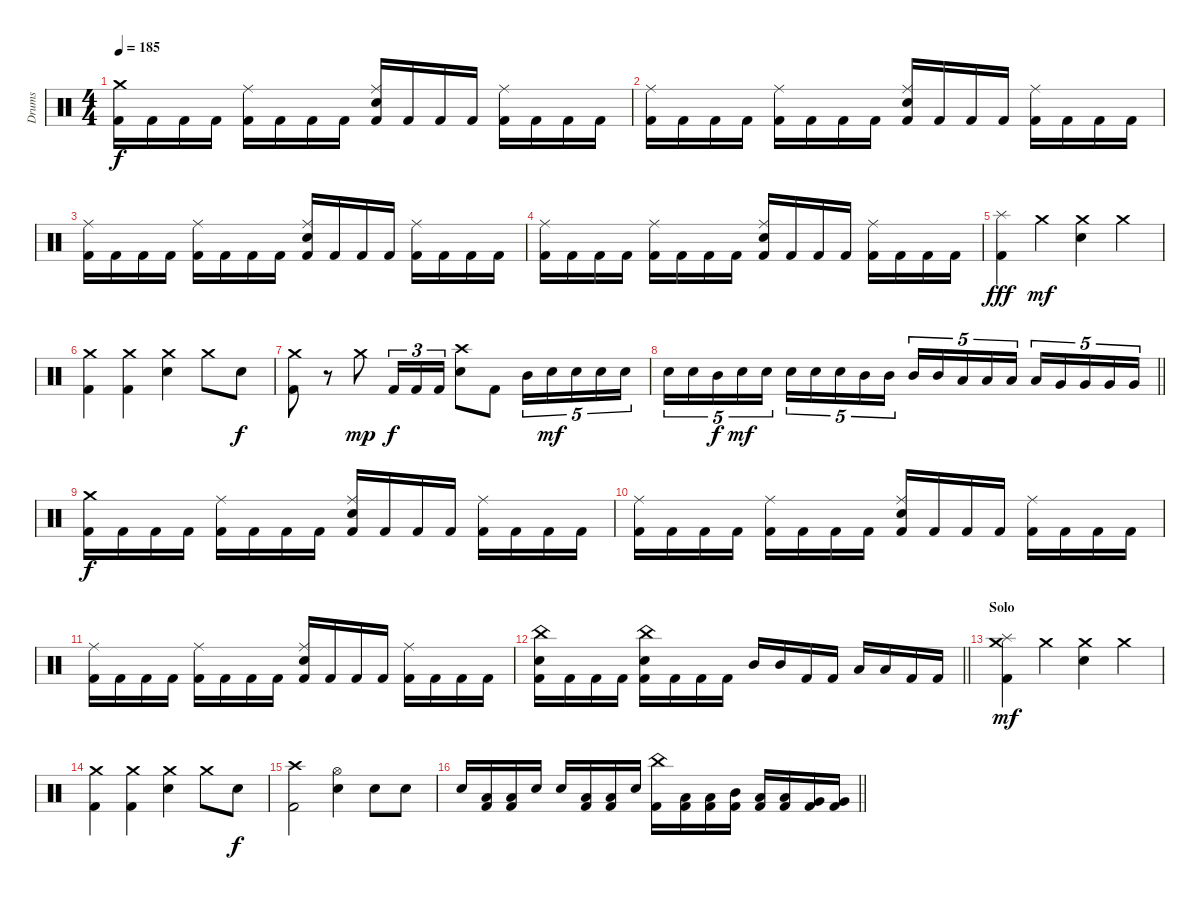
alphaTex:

\track ("Drums" "Drums") {instrument percussion}
\staff {score}
\articulation defaults
\ts (4 4)
\tempo 185
\clef neutral
\ks c
("Crash medium (hit)" "Kick (hit) 2").16{dy f} "Kick (hit) 2".16 "Kick (hit) 2".16 "Kick (hit) 2".16 ("Ride (middle)" "Kick (hit) 2").16 "Kick (hit) 2".16 "Kick (hit) 2".16 "Kick (hit) 2".16 ("Ride (middle)" "Electric Snare (hit)" "Kick (hit) 2").16 "Kick (hit) 2".16 "Kick (hit) 2".16 "Kick (hit) 2".16 ("Ride (middle)" "Kick (hit) 2").16 "Kick (hit) 2".16 "Kick (hit) 2".16 "Kick (hit) 2".16 |
("Ride (middle)" "Kick (hit) 2").16 "Kick (hit) 2".16 "Kick (hit) 2".16 "Kick (hit) 2".16 ("Ride (middle)" "Kick (hit) 2").16 "Kick (hit) 2".16 "Kick (hit) 2".16 "Kick (hit) 2".16 ("Ride (middle)" "Electric Snare (hit)" "Kick (hit) 2").16 "Kick (hit) 2".16 "Kick (hit) 2".16 "Kick (hit) 2".16 ("Ride (middle)" "Kick (hit) 2").16 "Kick (hit) 2".16 "Kick (hit) 2".16 "Kick (hit) 2".16 |
("Ride (middle)" "Kick (hit) 2").16 "Kick (hit) 2".16 "Kick (hit) 2".16 "Kick (hit) 2".16 ("Ride (middle)" "Kick (hit) 2").16 "Kick (hit) 2".16 "Kick (hit) 2".16 "Kick (hit) 2".16 ("Ride (middle)" "Electric Snare (hit)" "Kick (hit) 2").16 "Kick (hit) 2".16 "Kick (hit) 2".16 "Kick (hit) 2".16 ("Ride (middle)" "Kick (hit) 2").16 "Kick (hit) 2".16 "Kick (hit) 2".16 "Kick (hit) 2".16 |
("Ride (middle)" "Kick (hit) 2").16 "Kick (hit) 2".16 "Kick (hit) 2".16 "Kick (hit) 2".16 ("Ride (middle)" "Kick (hit) 2").16 "Kick (hit) 2".16 "Kick (hit) 2".16 "Kick (hit) 2".16 ("Ride (middle)" "Electric Snare (hit)" "Kick (hit) 2").16 "Kick (hit) 2".16 "Kick (hit) 2".16 "Kick (hit) 2".16 ("Ride (middle)" "Kick (hit) 2").16 "Kick (hit) 2".16 "Kick (hit) 2".16 "Kick (hit) 2".16 |
("Splash (hit)" "Kick (hit) 2").4{dy fff} "Crash medium (hit)".4{dy mf} ("Crash medium (hit)" "Electric Snare (hit)").4 "Crash medium (hit)".4 |
("Crash medium (hit)" "Kick (hit) 2").4 ("Crash medium (hit)" "Kick (hit) 2").4 ("Crash medium (hit)" "Electric Snare (hit)").4 "Crash medium (hit)".8 "Electric Snare (hit)".8{dy f} |
("Crash medium (hit)" "Kick (hit) 2").8 r.8 "Crash medium (hit)".8{dy mp} "Kick (hit) 2".16{tu (3 2) dy f} "Kick (hit) 2".16{tu (3 2)} "Kick (hit) 2".16{tu (3 2)} ("Crash high (hit)" "Electric Snare (hit)").8 "Kick (hit) 2".8 "Mid Tom (hit)".16{tu (5 4)} "Electric Snare (hit)".16{tu (5 4) dy mf} "Electric Snare (hit)".16{tu (5 4)} "Electric Snare (hit)".16{tu (5 4)} "Electric Snare (hit)".16{tu (5 4)} |
\barLineRight lightlight "Electric Snare (hit)".16{tu (5 4)} "Electric Snare (hit)".16{tu (5 4)} "Mid Tom (hit)".16{tu (5 4) dy f} "Electric Snare (hit)".16{tu (5 4) dy mf} "Electric Snare (hit)".16{tu (5 4)} "Electric Snare (hit)".16{tu (5 4)} "Electric Snare (hit)".16{tu (5 4)} "Electric Snare (hit)".16{tu (5 4)} "Mid Tom (hit)".16{tu (5 4)} "Mid Tom (hit)".16{tu (5 4)} "Mid Tom (hit)".16{tu (5 4)} "Mid Tom (hit)".16{tu (5 4)} "Low Tom (hit)".16{tu (5 4)} "Low Tom (hit)".16{tu (5 4)} "Low Tom (hit)".16{tu (5 4)} "Low Tom (hit)".16{tu (5 4)} "Very Low Tom (hit)".16{tu (5 4)} "Very Low Tom (hit)".16{tu (5 4)} "Very Low Tom (hit)".16{tu (5 4)} "Very Low Tom (hit)".16{tu (5 4)}
|
("Crash medium (hit)" "Kick (hit) 2").16{dy f} "Kick (hit) 2".16 "Kick (hit) 2".16 "Kick (hit) 2".16 ("Ride (middle)" "Kick (hit) 2").16 "Kick (hit) 2".16 "Kick (hit) 2".16 "Kick (hit) 2".16 ("Ride (middle)" "Electric Snare (hit)" "Kick (hit) 2").16 "Kick (hit) 2".16 "Kick (hit) 2".16 "Kick (hit) 2".16 ("Ride (middle)" "Kick (hit) 2").16 "Kick (hit) 2".16 "Kick (hit) 2".16 "Kick (hit) 2".16 |
("Ride (middle)" "Kick (hit) 2").16 "Kick (hit) 2".16 "Kick (hit) 2".16 "Kick (hit) 2".16 ("Ride (middle)" "Kick (hit) 2").16 "Kick (hit) 2".16 "Kick (hit) 2".16 "Kick (hit) 2".16 ("Ride (middle)" "Electric Snare (hit)" "Kick (hit) 2").16 "Kick (hit) 2".16 "Kick (hit) 2".16 "Kick (hit) 2".16 ("Ride (middle)" "Kick (hit) 2").16 "Kick (hit) 2".16 "Kick (hit) 2".16 "Kick (hit) 2".16 |
("Ride (middle)" "Kick (hit) 2").16 "Kick (hit) 2".16 "Kick (hit) 2".16 "Kick (hit) 2".16 ("Ride (middle)" "Kick (hit) 2").16 "Kick (hit) 2".16 "Kick (hit) 2".16 "Kick (hit) 2".16 ("Ride (middle)" "Electric Snare (hit)" "Kick (hit) 2").16 "Kick (hit) 2".16 "Kick (hit) 2".16 "Kick (hit) 2".16 ("Ride (middle)" "Kick (hit) 2").16 "Kick (hit) 2".16 "Kick (hit) 2".16 "Kick (hit) 2".16 |
\barLineRight lightlight
("China (hit)" "Electric Snare (hit)" "Kick (hit) 2").16 "Kick (hit) 2".16 "Kick (hit) 2".16 "Kick (hit) 2".16 ("China (hit)" "Electric Snare (hit)" "Kick (hit) 2").16 "Kick (hit) 2".16 "Kick (hit) 2".16 "Kick (hit) 2".16 "Mid Tom (hit)".16 "Mid Tom (hit)".16 "Kick (hit) 2".16 "Kick (hit) 2".16 "Low Tom (hit)".16 "Low Tom (hit)".16 "Kick (hit) 2".16 "Kick (hit) 2".16 |
\section ("" "Solo")
("Splash (hit)" "Crash medium (hit)" "Kick (hit) 2").4{dy mf} "Crash medium (hit)".4 ("Crash medium (hit)" "Electric Snare (hit)").4 "Crash medium (hit)".4 |
("Crash medium (hit)" "Kick (hit) 2").4 ("Crash medium (hit)" "Kick (hit) 2").4 ("Crash medium (hit)" "Electric Snare (hit)").4 "Crash medium (hit)".8 "Electric Snare (hit)".8{dy f} |
("Crash high (hit)" "Kick (hit) 2").2 ("Hi-Hat (open)" "Electric Snare (hit)").4 "Electric Snare (hit)".8 "Electric Snare (hit)".8 |
\barLineRight lightlight "Electric Snare (hit)".16
("Low Tom (hit)" "Kick (hit) 2").16 ("Low Tom (hit)" "Kick (hit) 2").16 "Electric Snare (hit)".16 "Electric Snare (hit)".16 ("Low Tom (hit)" "Kick (hit) 2").16 ("Low Tom (hit)" "Kick (hit) 2").16 "Electric Snare (hit)".16 ("China (hit)" "Kick (hit) 2").16 ("Low Tom (hit)" "Kick (hit) 2").16 ("Low Tom (hit)" "Kick (hit) 2").16 ("Mid Tom (hit)" "Kick (hit) 2").16 ("Low Tom (hit)" "Kick (hit) 2").16 ("Low Tom (hit)" "Kick (hit) 2").16 ("Very Low Tom (hit)" "Kick (hit) 2").16 ("Very Low Tom (hit)" "Kick (hit) 2").16
